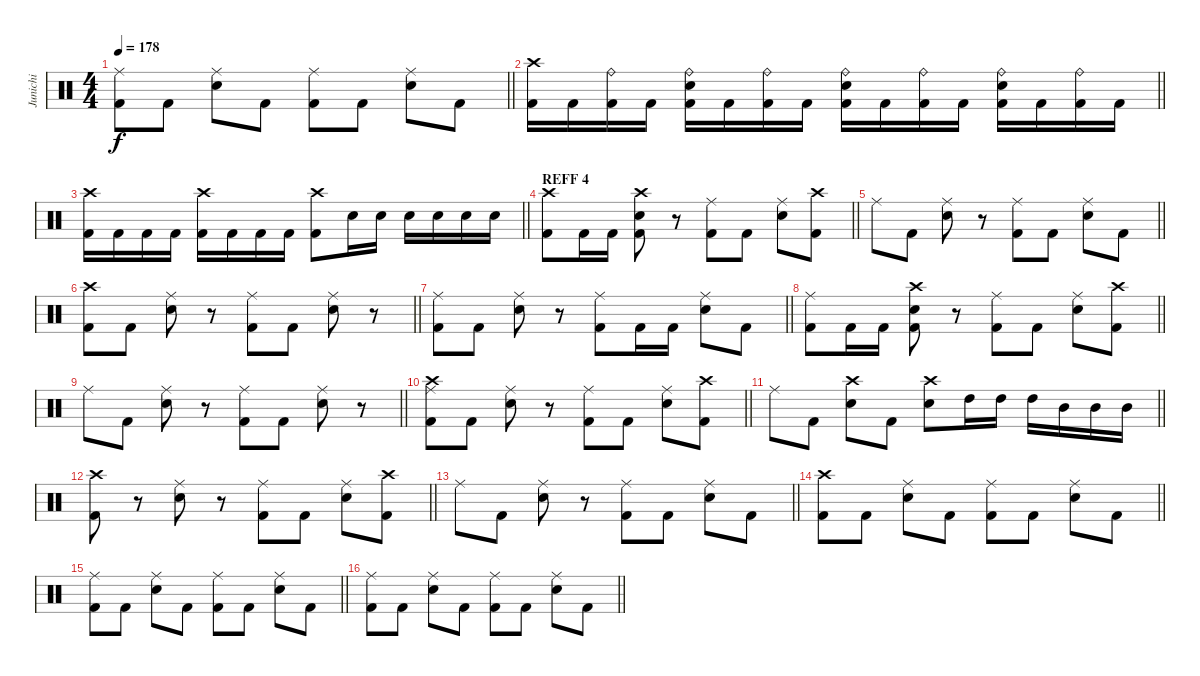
\track ("Junichi" "Junichi") {instrument percussion}
\staff {score}
\articulation defaults
\ts (4 4)
\tempo 178
\clef neutral
\barLineRight lightlight
\ks c
("Ride (middle)" "Kick (hit) 2").8{dy f} "Kick (hit) 2".8 ("Ride (middle)" "Snare (hit) 2").8 "Kick (hit) 2".8 ("Ride (middle)" "Kick (hit) 2").8 "Kick (hit) 2".8 ("Ride (middle)" "Snare (hit) 2").8 "Kick (hit) 2".8 |
\barLineRight lightlight
("Crash high (hit)" "Kick (hit) 2").16 "Kick (hit) 2".16 ("Ride (bell)" "Kick (hit) 2").16 "Kick (hit) 2".16 ("Ride (bell)" "Snare (hit) 2" "Kick (hit) 2").16 "Kick (hit) 2".16 ("Ride (bell)" "Kick (hit) 2").16 "Kick (hit) 2".16 ("Ride (bell)" "Snare (hit) 2" "Kick (hit) 2").16 "Kick (hit) 2".16 ("Ride (bell)" "Kick (hit) 2").16 "Kick (hit) 2".16 ("Ride (bell)" "Snare (hit) 2" "Kick (hit) 2").16 "Kick (hit) 2".16 ("Ride (bell)" "Kick (hit) 2").16 "Kick (hit) 2".16 |
\barLineRight lightlight
("Crash high (hit)" "Kick (hit) 2").16 "Kick (hit) 2".16 "Kick (hit) 2".16 "Kick (hit) 2".16 ("Crash high (hit)" "Kick (hit) 2").16 "Kick (hit) 2".16 "Kick (hit) 2".16 "Kick (hit) 2".16 ("Crash high (hit)" "Kick (hit) 2").8 "Snare (hit) 2".16 "Snare (hit) 2".16 "Snare (hit) 2".16 "Snare (hit) 2".16 "Snare (hit) 2".16 "Snare (hit) 2".16 |
\section ("" "REFF 4")
\barLineRight lightlight
("Crash high (hit)" "Kick (hit) 2").8 "Kick (hit) 2".16 "Kick (hit) 2".16 ("Crash high (hit)" "Snare (hit) 2" "Kick (hit) 2").8 r.8 ("Ride (middle)" "Kick (hit) 2").8 "Kick (hit) 2".8 ("Ride (middle)" "Snare (hit) 2").8 ("Crash high (hit)" "Kick (hit) 2").8 |
\barLineRight lightlight "Ride (middle)".8 "Kick (hit) 2".8
("Ride (middle)" "Snare (hit) 2").8 r.8 ("Ride (middle)" "Kick (hit) 2").8 "Kick (hit) 2".8 ("Ride (middle)" "Snare (hit) 2").8 "Kick (hit) 2".8 |
\barLineRight lightlight
("Crash high (hit)" "Kick (hit) 2").8 "Kick (hit) 2".8 ("Ride (middle)" "Snare (hit) 2").8 r.8 ("Ride (middle)" "Kick (hit) 2").8 "Kick (hit) 2".8 ("Ride (middle)" "Snare (hit) 2").8 r.8 |
\barLineRight lightlight
("Ride (middle)" "Kick (hit) 2").8 "Kick (hit) 2".8 ("Ride (middle)" "Snare (hit) 2").8 r.8 ("Ride (middle)" "Kick (hit) 2").8 "Kick (hit) 2".16 "Kick (hit) 2".16 ("Ride (middle)" "Snare (hit) 2").8 "Kick (hit) 2".8 |
\barLineRight lightlight
("Ride (middle)" "Kick (hit) 2").8 "Kick (hit) 2".16 "Kick (hit) 2".16 ("Crash high (hit)" "Snare (hit) 2" "Kick (hit) 2").8 r.8 ("Ride (middle)" "Kick (hit) 2").8 "Kick (hit) 2".8 ("Ride (middle)" "Snare (hit) 2").8 ("Crash high (hit)" "Kick (hit) 2").8 |
\barLineRight lightlight "Ride (middle)".8 "Kick (hit) 2".8
("Ride (middle)" "Snare (hit) 2").8 r.8 ("Ride (middle)" "Kick (hit) 2").8 "Kick (hit) 2".8 ("Ride (middle)" "Snare (hit) 2").8 r.8 |
\barLineRight lightlight
("Crash high (hit)" "Ride (middle)" "Kick (hit) 2").8 "Kick (hit) 2".8 ("Ride (middle)" "Snare (hit) 2").8 r.8 ("Ride (middle)" "Kick (hit) 2").8 "Kick (hit) 2".8 ("Ride (middle)" "Snare (hit) 2").8 ("Crash high (hit)" "Kick (hit) 2").8 |
\barLineRight lightlight "Ride (middle)".8 "Kick (hit) 2".8
("Crash high (hit)" "Snare (hit) 2").8 "Kick (hit) 2".8 ("Crash high (hit)" "Snare (hit) 2").8 "High Tom (hit)".16 "High Tom (hit)".16 "High Tom (hit)".16 "Mid Tom (hit)".16 "Mid Tom (hit)".16 "Mid Tom (hit)".16 |
\barLineRight lightlight
("Crash high (hit)" "Kick (hit) 2").8 r.8 ("Ride (middle)" "Snare (hit) 2").8 r.8 ("Ride (middle)" "Kick (hit) 2").8 "Kick (hit) 2".8 ("Ride (middle)" "Snare (hit) 2").8 ("Crash high (hit)" "Kick (hit) 2").8 |
\barLineRight lightlight "Ride (middle)".8 "Kick (hit) 2".8
("Ride (middle)" "Snare (hit) 2").8 r.8 ("Ride (middle)" "Kick (hit) 2").8 "Kick (hit) 2".8 ("Ride (middle)" "Snare (hit) 2").8 "Kick (hit) 2".8 |
\barLineRight lightlight
("Crash high (hit)" "Kick (hit) 2").8 "Kick (hit) 2".8 ("Ride (middle)" "Snare (hit) 2").8 "Kick (hit) 2".8 ("Ride (middle)" "Kick (hit) 2").8 "Kick (hit) 2".8 ("Ride (middle)" "Snare (hit) 2").8 "Kick (hit) 2".8 |
\barLineRight lightlight
("Ride (middle)" "Kick (hit) 2").8 "Kick (hit) 2".8 ("Ride (middle)" "Snare (hit) 2").8 "Kick (hit) 2".8 ("Ride (middle)" "Kick (hit) 2").8 "Kick (hit) 2".8 ("Ride (middle)" "Snare (hit) 2").8 "Kick (hit) 2".8 |
\barLineRight lightlight
("Ride (middle)" "Kick (hit) 2").8 "Kick (hit) 2".8 ("Ride (middle)" "Snare (hit) 2").8 "Kick (hit) 2".8 ("Ride (middle)" "Kick (hit) 2").8 "Kick (hit) 2".8 ("Ride (middle)" "Snare (hit) 2").8 "Kick (hit) 2".8
